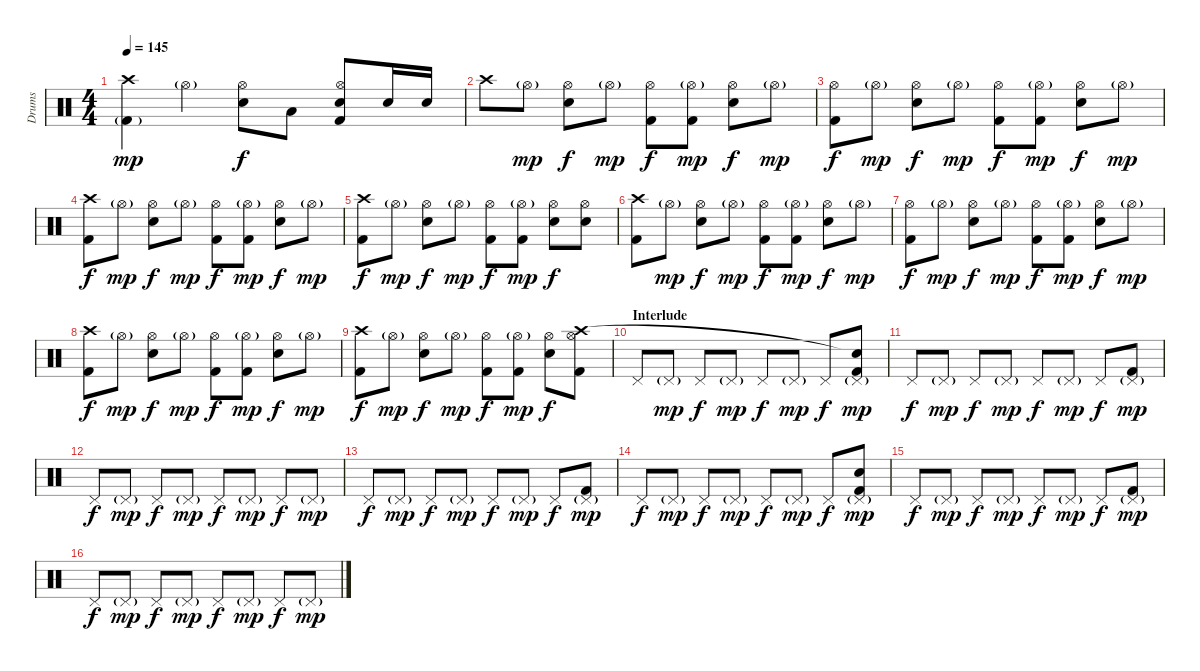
\track ("Drums" "Drums") {instrument percussion}
\staff {score}
\articulation defaults
\ts (4 4)
\tempo 145
\clef neutral
\ks c
("Crash high (hit)" "Kick (hit) 2"{g}).4{dy mp} "Hi-Hat (open)"{g}.4 ("Hi-Hat (open)" "Electric Snare (hit)").8{dy f} "Low Floor Tom (hit)".8 ("Hi-Hat (open)" "Electric Snare (hit)" "Kick (hit) 2").8 "Electric Snare (hit)".16 "Electric Snare (hit)".16 |
"Crash high (hit)".8 "Hi-Hat (open)"{g}.8{dy mp} ("Hi-Hat (open)" "Electric Snare (hit)").8{dy f} "Hi-Hat (open)"{g}.8{dy mp} ("Hi-Hat (open)" "Kick (hit) 2").8{dy f} ("Hi-Hat (open)"{g} "Kick (hit) 2").8{dy mp} ("Hi-Hat (open)" "Electric Snare (hit)").8{dy f} "Hi-Hat (open)"{g}.8{dy mp} |
("Hi-Hat (open)" "Kick (hit) 2").8{dy f} "Hi-Hat (open)"{g}.8{dy mp} ("Hi-Hat (open)" "Electric Snare (hit)").8{dy f} "Hi-Hat (open)"{g}.8{dy mp} ("Hi-Hat (open)" "Kick (hit) 2").8{dy f} ("Hi-Hat (open)"{g} "Kick (hit) 2").8{dy mp} ("Hi-Hat (open)" "Electric Snare (hit)").8{dy f} "Hi-Hat (open)"{g}.8{dy mp} |
("Crash high (hit)" "Kick (hit) 2").8{dy f} "Hi-Hat (open)"{g}.8{dy mp} ("Hi-Hat (open)" "Electric Snare (hit)").8{dy f} "Hi-Hat (open)"{g}.8{dy mp} ("Hi-Hat (open)" "Kick (hit) 2").8{dy f} ("Hi-Hat (open)"{g} "Kick (hit) 2").8{dy mp} ("Hi-Hat (open)" "Electric Snare (hit)").8{dy f} "Hi-Hat (open)"{g}.8{dy mp} |
("Crash high (hit)" "Kick (hit) 2").8{dy f} "Hi-Hat (open)"{g}.8{dy mp} ("Hi-Hat (open)" "Electric Snare (hit)").8{dy f} "Hi-Hat (open)"{g}.8{dy mp} ("Hi-Hat (open)" "Kick (hit) 2").8{dy f} ("Hi-Hat (open)"{g} "Kick (hit) 2").8{dy mp} ("Hi-Hat (open)" "Electric Snare (hit)").8{dy f} ("Hi-Hat (open)" "Electric Snare (hit)").8 |
("Crash high (hit)" "Kick (hit) 2").8 "Hi-Hat (open)"{g}.8{dy mp} ("Hi-Hat (open)" "Electric Snare (hit)").8{dy f} "Hi-Hat (open)"{g}.8{dy mp} ("Hi-Hat (open)" "Kick (hit) 2").8{dy f} ("Hi-Hat (open)"{g} "Kick (hit) 2").8{dy mp} ("Hi-Hat (open)" "Electric Snare (hit)").8{dy f} "Hi-Hat (open)"{g}.8{dy mp} |
("Hi-Hat (open)" "Kick (hit) 2").8{dy f} "Hi-Hat (open)"{g}.8{dy mp} ("Hi-Hat (open)" "Electric Snare (hit)").8{dy f} "Hi-Hat (open)"{g}.8{dy mp} ("Hi-Hat (open)" "Kick (hit) 2").8{dy f} ("Hi-Hat (open)"{g} "Kick (hit) 2").8{dy mp} ("Hi-Hat (open)" "Electric Snare (hit)").8{dy f} "Hi-Hat (open)"{g}.8{dy mp} |
("Crash high (hit)" "Kick (hit) 2").8{dy f} "Hi-Hat (open)"{g}.8{dy mp} ("Hi-Hat (open)" "Electric Snare (hit)").8{dy f} "Hi-Hat (open)"{g}.8{dy mp} ("Hi-Hat (open)" "Kick (hit) 2").8{dy f} ("Hi-Hat (open)"{g} "Kick (hit) 2").8{dy mp} ("Hi-Hat (open)" "Electric Snare (hit)").8{dy f} "Hi-Hat (open)"{g}.8{dy mp} |
("Crash high (hit)" "Kick (hit) 2").8{dy f} "Hi-Hat (open)"{g}.8{dy mp} ("Hi-Hat (open)" "Electric Snare (hit)").8{dy f} "Hi-Hat (open)"{g}.8{dy mp} ("Hi-Hat (open)" "Kick (hit) 2").8{dy f} ("Hi-Hat (open)"{g} "Kick (hit) 2").8{dy mp} ("Hi-Hat (open)" "Electric Snare (hit)").8{dy f} ("Hi-Hat (open)" "Kick (hit) 2" "Crash high (hit)").8 |
\section ("" "Interlude")
"Pedal Hi-Hat (hit)".8 "Pedal Hi-Hat (hit)"{g}.8{dy mp} "Pedal Hi-Hat (hit)".8{dy f} "Pedal Hi-Hat (hit)"{g}.8{dy mp} "Pedal Hi-Hat (hit)".8{dy f} "Pedal Hi-Hat (hit)"{g}.8{dy mp} "Pedal Hi-Hat (hit)".8{dy f} ("Pedal Hi-Hat (hit)"{g} "Kick (hit) 2" "Snare (hit)"{t}).8{dy mp} |
"Pedal Hi-Hat (hit)".8{dy f} "Pedal Hi-Hat (hit)"{g}.8{dy mp} "Pedal Hi-Hat (hit)".8{dy f} "Pedal Hi-Hat (hit)"{g}.8{dy mp} "Pedal Hi-Hat (hit)".8{dy f} "Pedal Hi-Hat (hit)"{g}.8{dy mp} "Pedal Hi-Hat (hit)".8{dy f} ("Pedal Hi-Hat (hit)"{g} "Kick (hit) 2").8{dy mp} |
"Pedal Hi-Hat (hit)".8{dy f} "Pedal Hi-Hat (hit)"{g}.8{dy mp} "Pedal Hi-Hat (hit)".8{dy f} "Pedal Hi-Hat (hit)"{g}.8{dy mp} "Pedal Hi-Hat (hit)".8{dy f} "Pedal Hi-Hat (hit)"{g}.8{dy mp} "Pedal Hi-Hat (hit)".8{dy f} "Pedal Hi-Hat (hit)"{g}.8{dy mp} |
"Pedal Hi-Hat (hit)".8{dy f} "Pedal Hi-Hat (hit)"{g}.8{dy mp} "Pedal Hi-Hat (hit)".8{dy f} "Pedal Hi-Hat (hit)"{g}.8{dy mp} "Pedal Hi-Hat (hit)".8{dy f} "Pedal Hi-Hat (hit)"{g}.8{dy mp} "Pedal Hi-Hat (hit)".8{dy f} ("Pedal Hi-Hat (hit)"{g} "Kick (hit) 2").8{dy mp} |
"Pedal Hi-Hat (hit)".8{dy f} "Pedal Hi-Hat (hit)"{g}.8{dy mp} "Pedal Hi-Hat (hit)".8{dy f} "Pedal Hi-Hat (hit)"{g}.8{dy mp} "Pedal Hi-Hat (hit)".8{dy f} "Pedal Hi-Hat (hit)"{g}.8{dy mp} "Pedal Hi-Hat (hit)".8{dy f} ("Pedal Hi-Hat (hit)"{g} "Kick (hit) 2" "Snare (hit)").8{dy mp} |
"Pedal Hi-Hat (hit)".8{dy f} "Pedal Hi-Hat (hit)"{g}.8{dy mp} "Pedal Hi-Hat (hit)".8{dy f} "Pedal Hi-Hat (hit)"{g}.8{dy mp} "Pedal Hi-Hat (hit)".8{dy f} "Pedal Hi-Hat (hit)"{g}.8{dy mp} "Pedal Hi-Hat (hit)".8{dy f} ("Pedal Hi-Hat (hit)"{g} "Kick (hit) 2").8{dy mp} |
"Pedal Hi-Hat (hit)".8{dy f} "Pedal Hi-Hat (hit)"{g}.8{dy mp} "Pedal Hi-Hat (hit)".8{dy f} "Pedal Hi-Hat (hit)"{g}.8{dy mp} "Pedal Hi-Hat (hit)".8{dy f} "Pedal Hi-Hat (hit)"{g}.8{dy mp} "Pedal Hi-Hat (hit)".8{dy f} "Pedal Hi-Hat (hit)"{g}.8{dy mp}
